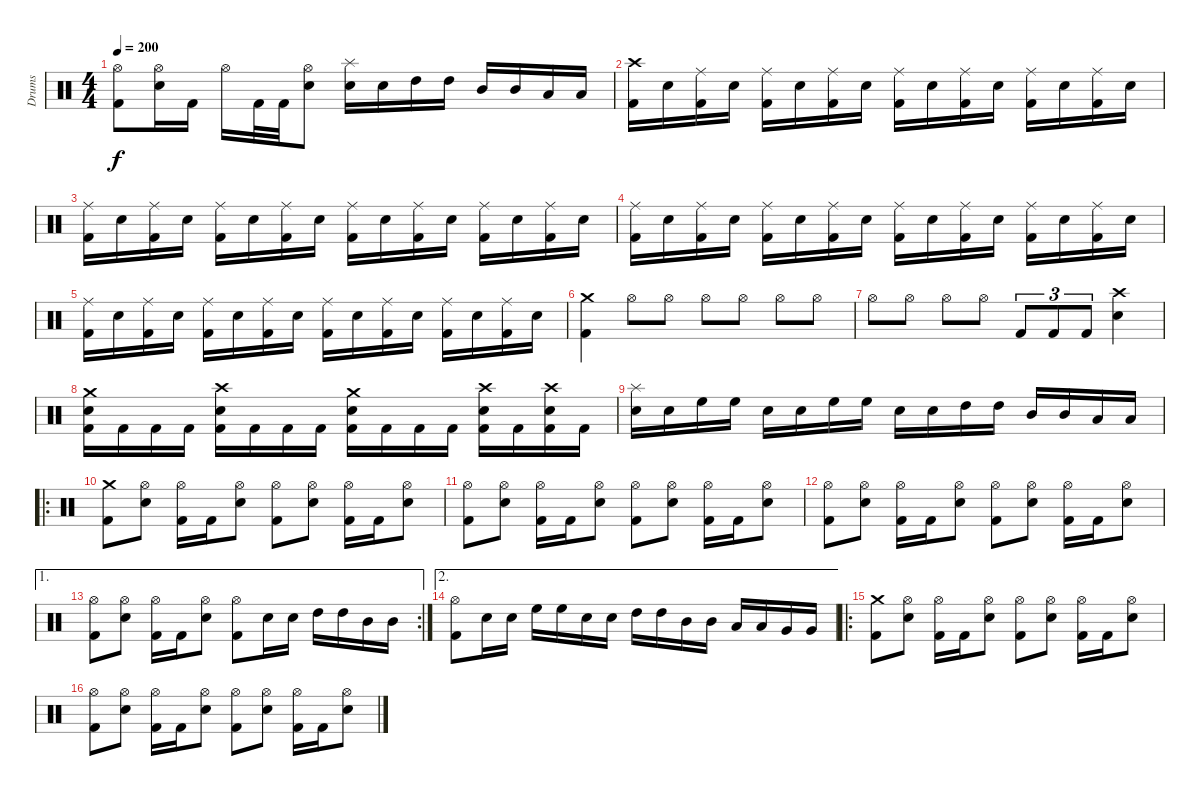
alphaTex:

\track ("Drums" "Drums") {instrument percussion}
\staff {score}
\articulation defaults
\ts (4 4)
\tempo 200
\clef neutral
\ks c
("Hi-Hat (open)" "Kick (hit) 2").8{dy f} ("Hi-Hat (open)" "Electric Snare (hit)").16 "Kick (hit) 2".16 "Hi-Hat (open)".16 "Kick (hit) 2".32 "Kick (hit) 2".32 ("Hi-Hat (open)" "Electric Snare (hit)").8 ("Splash (hit)" "Electric Snare (hit)").16 "Electric Snare (hit)".16 "High Tom (hit)".16 "High Tom (hit)".16 "Mid Tom (hit)".16 "Mid Tom (hit)".16 "Low Tom (hit)".16 "Low Tom (hit)".16 |
("Crash high (hit)" "Kick (hit) 2").16 "Electric Snare (hit)".16 ("Ride (middle)" "Kick (hit) 2").16 "Electric Snare (hit)".16 ("Ride (middle)" "Kick (hit) 2").16 "Electric Snare (hit)".16 ("Ride (middle)" "Kick (hit) 2").16 "Electric Snare (hit)".16 ("Ride (middle)" "Kick (hit) 2").16 "Electric Snare (hit)".16 ("Ride (middle)" "Kick (hit) 2").16 "Electric Snare (hit)".16 ("Ride (middle)" "Kick (hit) 2").16 "Electric Snare (hit)".16 ("Ride (middle)" "Kick (hit) 2").16 "Electric Snare (hit)".16 |
("Ride (middle)" "Kick (hit) 2").16 "Electric Snare (hit)".16 ("Ride (middle)" "Kick (hit) 2").16 "Electric Snare (hit)".16 ("Ride (middle)" "Kick (hit) 2").16 "Electric Snare (hit)".16 ("Ride (middle)" "Kick (hit) 2").16 "Electric Snare (hit)".16 ("Ride (middle)" "Kick (hit) 2").16 "Electric Snare (hit)".16 ("Ride (middle)" "Kick (hit) 2").16 "Electric Snare (hit)".16 ("Ride (middle)" "Kick (hit) 2").16 "Electric Snare (hit)".16 ("Ride (middle)" "Kick (hit) 2").16 "Electric Snare (hit)".16 |
("Ride (middle)" "Kick (hit) 2").16 "Electric Snare (hit)".16 ("Ride (middle)" "Kick (hit) 2").16 "Electric Snare (hit)".16 ("Ride (middle)" "Kick (hit) 2").16 "Electric Snare (hit)".16 ("Ride (middle)" "Kick (hit) 2").16 "Electric Snare (hit)".16 ("Ride (middle)" "Kick (hit) 2").16 "Electric Snare (hit)".16 ("Ride (middle)" "Kick (hit) 2").16 "Electric Snare (hit)".16 ("Ride (middle)" "Kick (hit) 2").16 "Electric Snare (hit)".16 ("Ride (middle)" "Kick (hit) 2").16 "Electric Snare (hit)".16 |
("Ride (middle)" "Kick (hit) 2").16 "Electric Snare (hit)".16 ("Ride (middle)" "Kick (hit) 2").16 "Electric Snare (hit)".16 ("Ride (middle)" "Kick (hit) 2").16 "Electric Snare (hit)".16 ("Ride (middle)" "Kick (hit) 2").16 "Electric Snare (hit)".16 ("Ride (middle)" "Kick (hit) 2").16 "Electric Snare (hit)".16 ("Ride (middle)" "Kick (hit) 2").16 "Electric Snare (hit)".16 ("Ride (middle)" "Kick (hit) 2").16 "Electric Snare (hit)".16 ("Ride (middle)" "Kick (hit) 2").16 "Electric Snare (hit)".16 |
("Crash medium (hit)" "Kick (hit) 2").4 "Hi-Hat (open)".8 "Hi-Hat (open)".8 "Hi-Hat (open)".8 "Hi-Hat (open)".8 "Hi-Hat (open)".8 "Hi-Hat (open)".8 |
"Hi-Hat (open)".8 "Hi-Hat (open)".8 "Hi-Hat (open)".8 "Hi-Hat (open)".8 "Kick (hit) 2".8{tu (3 2)} "Kick (hit) 2".8{tu (3 2)} "Kick (hit) 2".8{tu (3 2)} ("Crash high (hit)" "Electric Snare (hit)").4 |
("Crash medium (hit)" "Electric Snare (hit)" "Kick (hit) 2").16 "Kick (hit) 2".16 "Kick (hit) 2".16 "Kick (hit) 2".16 ("Crash high (hit)" "Electric Snare (hit)" "Kick (hit) 2").16 "Kick (hit) 2".16 "Kick (hit) 2".16 "Kick (hit) 2".16 ("Crash medium (hit)" "Electric Snare (hit)" "Kick (hit) 2").16 "Kick (hit) 2".16 "Kick (hit) 2".16 "Kick (hit) 2".16 ("Crash high (hit)" "Electric Snare (hit)" "Kick (hit) 2").16 "Kick (hit) 2".16 ("Crash high (hit)" "Electric Snare (hit)" "Kick (hit) 2").16 "Kick (hit) 2".16 |
("Splash (hit)" "Electric Snare (hit)").16 "Electric Snare (hit)".16 "High Floor Tom (hit)".16 "High Floor Tom (hit)".16 "Electric Snare (hit)".16 "Electric Snare (hit)".16 "High Floor Tom (hit)".16 "High Floor Tom (hit)".16 "Electric Snare (hit)".16 "Electric Snare (hit)".16 "High Tom (hit)".16 "High Tom (hit)".16 "Mid Tom (hit)".16 "Mid Tom (hit)".16 "Low Tom (hit)".16 "Low Tom (hit)".16 |
\ro
("Crash medium (hit)" "Kick (hit) 2").8 ("Hi-Hat (open)" "Electric Snare (hit)").8 ("Hi-Hat (open)" "Kick (hit) 2").16 "Kick (hit) 2".16 ("Hi-Hat (open)" "Electric Snare (hit)").8 ("Hi-Hat (open)" "Kick (hit) 2").8 ("Hi-Hat (open)" "Electric Snare (hit)").8 ("Hi-Hat (open)" "Kick (hit) 2").16 "Kick (hit) 2".16 ("Hi-Hat (open)" "Electric Snare (hit)").8 |
("Hi-Hat (open)" "Kick (hit) 2").8 ("Hi-Hat (open)" "Electric Snare (hit)").8 ("Hi-Hat (open)" "Kick (hit) 2").16 "Kick (hit) 2".16 ("Hi-Hat (open)" "Electric Snare (hit)").8 ("Hi-Hat (open)" "Kick (hit) 2").8 ("Hi-Hat (open)" "Electric Snare (hit)").8 ("Hi-Hat (open)" "Kick (hit) 2").16 "Kick (hit) 2".16 ("Hi-Hat (open)" "Electric Snare (hit)").8 |
("Hi-Hat (open)" "Kick (hit) 2").8 ("Hi-Hat (open)" "Electric Snare (hit)").8 ("Hi-Hat (open)" "Kick (hit) 2").16 "Kick (hit) 2".16 ("Hi-Hat (open)" "Electric Snare (hit)").8 ("Hi-Hat (open)" "Kick (hit) 2").8 ("Hi-Hat (open)" "Electric Snare (hit)").8 ("Hi-Hat (open)" "Kick (hit) 2").16 "Kick (hit) 2".16 ("Hi-Hat (open)" "Electric Snare (hit)").8 |
\ae 1
\rc 2
("Hi-Hat (open)" "Kick (hit) 2").8 ("Hi-Hat (open)" "Electric Snare (hit)").8 ("Hi-Hat (open)" "Kick (hit) 2").16 "Kick (hit) 2".16 ("Hi-Hat (open)" "Electric Snare (hit)").8 ("Hi-Hat (open)" "Kick (hit) 2").8 "Electric Snare (hit)".16 "Electric Snare (hit)".16 "High Tom (hit)".16 "High Tom (hit)".16 "Mid Tom (hit)".16 "Mid Tom (hit)".16 |
\ae 2
("Hi-Hat (open)" "Kick (hit) 2").8 "Electric Snare (hit)".16 "Electric Snare (hit)".16 "High Floor Tom (hit)".16 "High Floor Tom (hit)".16 "Electric Snare (hit)".16 "Electric Snare (hit)".16 "High Tom (hit)".16 "High Tom (hit)".16 "Mid Tom (hit)".16 "Mid Tom (hit)".16 "Low Tom (hit)".16 "Low Tom (hit)".16 "Very Low Tom (hit)".16 "Very Low Tom (hit)".16 |
\ro
("Crash medium (hit)" "Kick (hit) 2").8 ("Hi-Hat (open)" "Electric Snare (hit)").8 ("Hi-Hat (open)" "Kick (hit) 2").16 "Kick (hit) 2".16 ("Hi-Hat (open)" "Electric Snare (hit)").8 ("Hi-Hat (open)" "Kick (hit) 2").8 ("Hi-Hat (open)" "Electric Snare (hit)").8 ("Hi-Hat (open)" "Kick (hit) 2").16 "Kick (hit) 2".16 ("Hi-Hat (open)" "Electric Snare (hit)").8 |
("Hi-Hat (open)" "Kick (hit) 2").8 ("Hi-Hat (open)" "Electric Snare (hit)").8 ("Hi-Hat (open)" "Kick (hit) 2").16 "Kick (hit) 2".16 ("Hi-Hat (open)" "Electric Snare (hit)").8 ("Hi-Hat (open)" "Kick (hit) 2").8 ("Hi-Hat (open)" "Electric Snare (hit)").8 ("Hi-Hat (open)" "Kick (hit) 2").16 "Kick (hit) 2".16 ("Hi-Hat (open)" "Electric Snare (hit)").8
